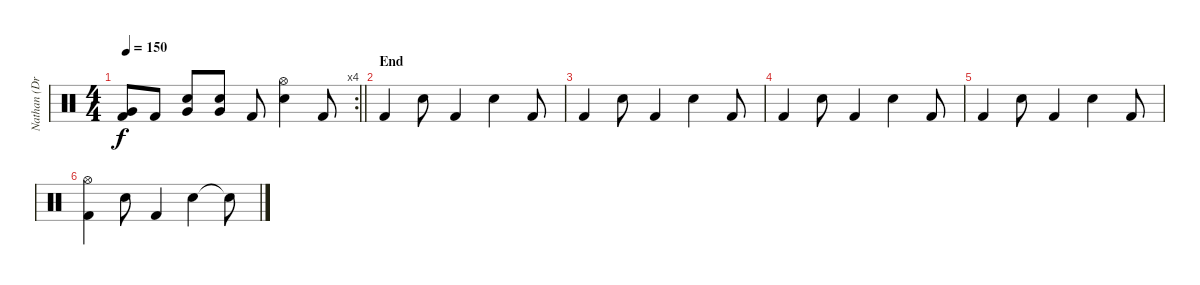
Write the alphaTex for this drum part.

\track ("Nathan (Drums)" "Nathan (Dr") {instrument percussion}
\staff {score}
\articulation defaults
\rc 4
\ts (4 4)
\tempo 150
\clef neutral
\barLineRight lightlight
\ks c
("Very Low Tom (hit)" "Kick (hit) 2").8{dy f} "Kick (hit) 2".8 ("Very Low Tom (hit)" "Electric Snare (hit)").8 ("Very Low Tom (hit)" "Electric Snare (hit)").8 "Kick (hit) 2".8 ("Hi-Hat (open)" "Electric Snare (hit)").4 "Kick (hit) 2".8 |
\section ("" "End")
"Kick (hit) 2".4 "Electric Snare (hit)".8 "Kick (hit) 2".4 "Electric Snare (hit)".4 "Kick (hit) 2".8 |
"Kick (hit) 2".4 "Electric Snare (hit)".8 "Kick (hit) 2".4 "Electric Snare (hit)".4 "Kick (hit) 2".8 |
"Kick (hit) 2".4 "Electric Snare (hit)".8 "Kick (hit) 2".4 "Electric Snare (hit)".4 "Kick (hit) 2".8 |
"Kick (hit) 2".4 "Electric Snare (hit)".8 "Kick (hit) 2".4 "Electric Snare (hit)".4 "Kick (hit) 2".8 |
("Hi-Hat (open)" "Kick (hit) 2").4 "Electric Snare (hit)".8 "Kick (hit) 2".4 "Electric Snare (hit)".4 "Snare (hit)"{t}.8
